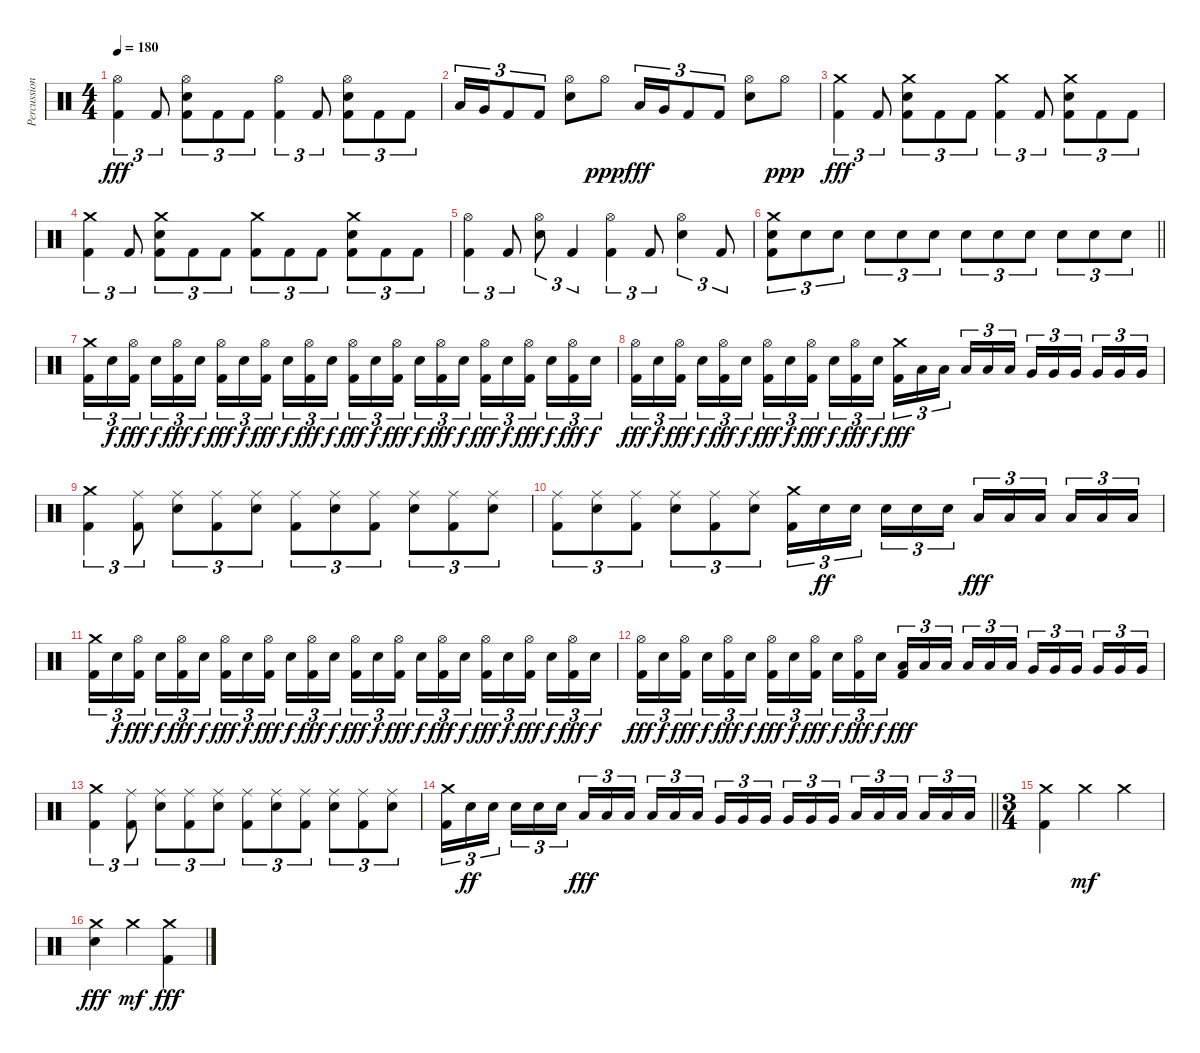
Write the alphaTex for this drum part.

\track ("Percussion" "Percussion") {instrument percussion}
\staff {score}
\articulation defaults
\ts (4 4)
\tempo 180
\clef neutral
\ks c
("Hi-Hat (open)" "Kick (hit) 2").4{tu (3 2) dy fff} "Kick (hit) 2".8{tu (3 2)} ("Hi-Hat (open)" "Electric Snare (hit)" "Kick (hit) 2").8{tu (3 2)} "Kick (hit) 2".8{tu (3 2)} "Kick (hit) 2".8{tu (3 2)} ("Hi-Hat (open)" "Kick (hit) 2").4{tu (3 2)} "Kick (hit) 2".8{tu (3 2)} ("Hi-Hat (open)" "Electric Snare (hit)" "Kick (hit) 2").8{tu (3 2)} "Kick (hit) 2".8{tu (3 2)} "Kick (hit) 2".8{tu (3 2)} |
"Low Tom (hit)".16{tu (3 2)} "Very Low Tom (hit)".16{tu (3 2)} "Kick (hit) 2".8{tu (3 2)} "Kick (hit) 2".8{tu (3 2)} ("Hi-Hat (open)" "Electric Snare (hit)").8 "Hi-Hat (open)".8{dy ppp} "Low Tom (hit)".16{tu (3 2) dy fff} "Very Low Tom (hit)".16{tu (3 2)} "Kick (hit) 2".8{tu (3 2)} "Kick (hit) 2".8{tu (3 2)} ("Hi-Hat (open)" "Electric Snare (hit)").8 "Hi-Hat (open)".8{dy ppp} |
("Crash medium (hit)" "Kick (hit) 2").4{tu (3 2) dy fff} "Kick (hit) 2".8{tu (3 2)} ("Crash medium (hit)" "Electric Snare (hit)" "Kick (hit) 2").8{tu (3 2)} "Kick (hit) 2".8{tu (3 2)} "Kick (hit) 2".8{tu (3 2)} ("Crash medium (hit)" "Kick (hit) 2").4{tu (3 2)} "Kick (hit) 2".8{tu (3 2)} ("Crash medium (hit)" "Electric Snare (hit)" "Kick (hit) 2").8{tu (3 2)} "Kick (hit) 2".8{tu (3 2)} "Kick (hit) 2".8{tu (3 2)} |
("Crash medium (hit)" "Kick (hit) 2").4{tu (3 2)} "Kick (hit) 2".8{tu (3 2)} ("Crash medium (hit)" "Electric Snare (hit)" "Kick (hit) 2").8{tu (3 2)} "Kick (hit) 2".8{tu (3 2)} "Kick (hit) 2".8{tu (3 2)} ("Crash medium (hit)" "Kick (hit) 2").8{tu (3 2)} "Kick (hit) 2".8{tu (3 2)} "Kick (hit) 2".8{tu (3 2)} ("Crash medium (hit)" "Electric Snare (hit)" "Kick (hit) 2").8{tu (3 2)} "Kick (hit) 2".8{tu (3 2)} "Kick (hit) 2".8{tu (3 2)} |
("Hi-Hat (open)" "Kick (hit) 2").4{tu (3 2)} "Kick (hit) 2".8{tu (3 2)} ("Hi-Hat (open)" "Electric Snare (hit)").8{tu (3 2)} "Kick (hit) 2".4{tu (3 2)} ("Hi-Hat (open)" "Kick (hit) 2").4{tu (3 2)} "Kick (hit) 2".8{tu (3 2)} ("Hi-Hat (open)" "Electric Snare (hit)").4{tu (3 2)} "Kick (hit) 2".8{tu (3 2)} |
\barLineRight lightlight
("Crash medium (hit)" "Electric Snare (hit)" "Kick (hit) 2").8{tu (3 2)} "Electric Snare (hit)".8{tu (3 2)} "Electric Snare (hit)".8{tu (3 2)} "Electric Snare (hit)".8{tu (3 2)} "Electric Snare (hit)".8{tu (3 2)} "Electric Snare (hit)".8{tu (3 2)} "Electric Snare (hit)".8{tu (3 2)} "Electric Snare (hit)".8{tu (3 2)} "Electric Snare (hit)".8{tu (3 2)} "Electric Snare (hit)".8{tu (3 2)} "Electric Snare (hit)".8{tu (3 2)} "Electric Snare (hit)".8{tu (3 2)} |
\section ("" "")
("Crash medium (hit)" "Kick (hit) 2").16{tu (3 2)} "Electric Snare (hit)".16{tu (3 2) dy f} ("Hi-Hat (open)" "Kick (hit) 2").16{tu (3 2) dy fff beam splitsecondary} "Electric Snare (hit)".16{tu (3 2) dy f} ("Hi-Hat (open)" "Kick (hit) 2").16{tu (3 2) dy fff} "Electric Snare (hit)".16{tu (3 2) dy f} ("Hi-Hat (open)" "Kick (hit) 2").16{tu (3 2) dy fff} "Electric Snare (hit)".16{tu (3 2) dy f} ("Hi-Hat (open)" "Kick (hit) 2").16{tu (3 2) dy fff beam splitsecondary} "Electric Snare (hit)".16{tu (3 2) dy f} ("Hi-Hat (open)" "Kick (hit) 2").16{tu (3 2) dy fff} "Electric Snare (hit)".16{tu (3 2) dy f} ("Hi-Hat (open)" "Kick (hit) 2").16{tu (3 2) dy fff} "Electric Snare (hit)".16{tu (3 2) dy f} ("Hi-Hat (open)" "Kick (hit) 2").16{tu (3 2) dy fff beam splitsecondary} "Electric Snare (hit)".16{tu (3 2) dy f} ("Hi-Hat (open)" "Kick (hit) 2").16{tu (3 2) dy fff} "Electric Snare (hit)".16{tu (3 2) dy f} ("Hi-Hat (open)" "Kick (hit) 2").16{tu (3 2) dy fff} "Electric Snare (hit)".16{tu (3 2) dy f} ("Hi-Hat (open)" "Kick (hit) 2").16{tu (3 2) dy fff beam splitsecondary} "Electric Snare (hit)".16{tu (3 2) dy f} ("Hi-Hat (open)" "Kick (hit) 2").16{tu (3 2) dy fff} "Electric Snare (hit)".16{tu (3 2) dy f} |
("Hi-Hat (open)" "Kick (hit) 2").16{tu (3 2) dy fff} "Electric Snare (hit)".16{tu (3 2) dy f} ("Hi-Hat (open)" "Kick (hit) 2").16{tu (3 2) dy fff beam splitsecondary} "Electric Snare (hit)".16{tu (3 2) dy f} ("Hi-Hat (open)" "Kick (hit) 2").16{tu (3 2) dy fff} "Electric Snare (hit)".16{tu (3 2) dy f} ("Hi-Hat (open)" "Kick (hit) 2").16{tu (3 2) dy fff} "Electric Snare (hit)".16{tu (3 2) dy f} ("Hi-Hat (open)" "Kick (hit) 2").16{tu (3 2) dy fff beam splitsecondary} "Electric Snare (hit)".16{tu (3 2) dy f} ("Hi-Hat (open)" "Kick (hit) 2").16{tu (3 2) dy fff} "Electric Snare (hit)".16{tu (3 2) dy f} ("Crash medium (hit)" "Kick (hit) 2").16{tu (3 2) dy fff} "Low Tom (hit)".16{tu (3 2)} "Low Tom (hit)".16{tu (3 2) beam splitsecondary} "Low Tom (hit)".16{tu (3 2)} "Low Tom (hit)".16{tu (3 2)} "Low Tom (hit)".16{tu (3 2)} "Very Low Tom (hit)".16{tu (3 2)} "Very Low Tom (hit)".16{tu (3 2)} "Very Low Tom (hit)".16{tu (3 2) beam splitsecondary} "Very Low Tom (hit)".16{tu (3 2)} "Very Low Tom (hit)".16{tu (3 2)} "Very Low Tom (hit)".16{tu (3 2)} |
("Crash medium (hit)" "Kick (hit) 2").4{tu (3 2)} ("Ride (middle)" "Kick (hit) 2").8{tu (3 2)} ("Ride (middle)" "Electric Snare (hit)").8{tu (3 2)} ("Ride (middle)" "Kick (hit) 2").8{tu (3 2)} ("Ride (middle)" "Electric Snare (hit)").8{tu (3 2)} ("Ride (middle)" "Kick (hit) 2").8{tu (3 2)} ("Ride (middle)" "Electric Snare (hit)").8{tu (3 2)} ("Ride (middle)" "Kick (hit) 2").8{tu (3 2)} ("Ride (middle)" "Electric Snare (hit)").8{tu (3 2)} ("Ride (middle)" "Kick (hit) 2").8{tu (3 2)} ("Ride (middle)" "Electric Snare (hit)").8{tu (3 2)} |
("Ride (middle)" "Kick (hit) 2").8{tu (3 2)} ("Ride (middle)" "Electric Snare (hit)").8{tu (3 2)} ("Ride (middle)" "Kick (hit) 2").8{tu (3 2)} ("Ride (middle)" "Electric Snare (hit)").8{tu (3 2)} ("Ride (middle)" "Kick (hit) 2").8{tu (3 2)} ("Ride (middle)" "Electric Snare (hit)").8{tu (3 2)} ("Crash medium (hit)" "Kick (hit) 2").16{tu (3 2)} "Electric Snare (hit)".16{tu (3 2) dy ff} "Electric Snare (hit)".16{tu (3 2) beam splitsecondary} "Electric Snare (hit)".16{tu (3 2)} "Electric Snare (hit)".16{tu (3 2)} "Electric Snare (hit)".16{tu (3 2)} "Low Tom (hit)".16{tu (3 2) dy fff} "Low Tom (hit)".16{tu (3 2)} "Low Tom (hit)".16{tu (3 2) beam splitsecondary} "Low Tom (hit)".16{tu (3 2)} "Low Tom (hit)".16{tu (3 2)} "Low Tom (hit)".16{tu (3 2)} |
("Crash medium (hit)" "Kick (hit) 2").16{tu (3 2)} "Electric Snare (hit)".16{tu (3 2) dy f} ("Hi-Hat (open)" "Kick (hit) 2").16{tu (3 2) dy fff beam splitsecondary} "Electric Snare (hit)".16{tu (3 2) dy f} ("Hi-Hat (open)" "Kick (hit) 2").16{tu (3 2) dy fff} "Electric Snare (hit)".16{tu (3 2) dy f} ("Hi-Hat (open)" "Kick (hit) 2").16{tu (3 2) dy fff} "Electric Snare (hit)".16{tu (3 2) dy f} ("Hi-Hat (open)" "Kick (hit) 2").16{tu (3 2) dy fff beam splitsecondary} "Electric Snare (hit)".16{tu (3 2) dy f} ("Hi-Hat (open)" "Kick (hit) 2").16{tu (3 2) dy fff} "Electric Snare (hit)".16{tu (3 2) dy f} ("Hi-Hat (open)" "Kick (hit) 2").16{tu (3 2) dy fff} "Electric Snare (hit)".16{tu (3 2) dy f} ("Hi-Hat (open)" "Kick (hit) 2").16{tu (3 2) dy fff beam splitsecondary} "Electric Snare (hit)".16{tu (3 2) dy f} ("Hi-Hat (open)" "Kick (hit) 2").16{tu (3 2) dy fff} "Electric Snare (hit)".16{tu (3 2) dy f} ("Hi-Hat (open)" "Kick (hit) 2").16{tu (3 2) dy fff} "Electric Snare (hit)".16{tu (3 2) dy f} ("Hi-Hat (open)" "Kick (hit) 2").16{tu (3 2) dy fff beam splitsecondary} "Electric Snare (hit)".16{tu (3 2) dy f} ("Hi-Hat (open)" "Kick (hit) 2").16{tu (3 2) dy fff} "Electric Snare (hit)".16{tu (3 2) dy f} |
("Hi-Hat (open)" "Kick (hit) 2").16{tu (3 2) dy fff} "Electric Snare (hit)".16{tu (3 2) dy f} ("Hi-Hat (open)" "Kick (hit) 2").16{tu (3 2) dy fff beam splitsecondary} "Electric Snare (hit)".16{tu (3 2) dy f} ("Hi-Hat (open)" "Kick (hit) 2").16{tu (3 2) dy fff} "Electric Snare (hit)".16{tu (3 2) dy f} ("Hi-Hat (open)" "Kick (hit) 2").16{tu (3 2) dy fff} "Electric Snare (hit)".16{tu (3 2) dy f} ("Hi-Hat (open)" "Kick (hit) 2").16{tu (3 2) dy fff beam splitsecondary} "Electric Snare (hit)".16{tu (3 2) dy f} ("Hi-Hat (open)" "Kick (hit) 2").16{tu (3 2) dy fff} "Electric Snare (hit)".16{tu (3 2) dy f} ("Low Tom (hit)" "Kick (hit) 2").16{tu (3 2) dy fff} "Low Tom (hit)".16{tu (3 2)} "Low Tom (hit)".16{tu (3 2) beam splitsecondary} "Low Tom (hit)".16{tu (3 2)} "Low Tom (hit)".16{tu (3 2)} "Low Tom (hit)".16{tu (3 2)} "Very Low Tom (hit)".16{tu (3 2)} "Very Low Tom (hit)".16{tu (3 2)} "Very Low Tom (hit)".16{tu (3 2) beam splitsecondary} "Very Low Tom (hit)".16{tu (3 2)} "Very Low Tom (hit)".16{tu (3 2)} "Very Low Tom (hit)".16{tu (3 2)} |
("Crash medium (hit)" "Kick (hit) 2").4{tu (3 2)} ("Ride (middle)" "Kick (hit) 2").8{tu (3 2)} ("Ride (middle)" "Electric Snare (hit)").8{tu (3 2)} ("Ride (middle)" "Kick (hit) 2").8{tu (3 2)} ("Ride (middle)" "Electric Snare (hit)").8{tu (3 2)} ("Ride (middle)" "Kick (hit) 2").8{tu (3 2)} ("Ride (middle)" "Electric Snare (hit)").8{tu (3 2)} ("Ride (middle)" "Kick (hit) 2").8{tu (3 2)} ("Ride (middle)" "Electric Snare (hit)").8{tu (3 2)} ("Ride (middle)" "Kick (hit) 2").8{tu (3 2)} ("Ride (middle)" "Electric Snare (hit)").8{tu (3 2)} |
\barLineRight lightlight
("Crash medium (hit)" "Kick (hit) 2").16{tu (3 2)} "Electric Snare (hit)".16{tu (3 2) dy ff} "Electric Snare (hit)".16{tu (3 2) beam splitsecondary} "Electric Snare (hit)".16{tu (3 2)} "Electric Snare (hit)".16{tu (3 2)} "Electric Snare (hit)".16{tu (3 2)} "Low Tom (hit)".16{tu (3 2) dy fff} "Low Tom (hit)".16{tu (3 2)} "Low Tom (hit)".16{tu (3 2) beam splitsecondary} "Low Tom (hit)".16{tu (3 2)} "Low Tom (hit)".16{tu (3 2)} "Low Tom (hit)".16{tu (3 2)} "Very Low Tom (hit)".16{tu (3 2)} "Very Low Tom (hit)".16{tu (3 2)} "Very Low Tom (hit)".16{tu (3 2) beam splitsecondary} "Very Low Tom (hit)".16{tu (3 2)} "Very Low Tom (hit)".16{tu (3 2)} "Very Low Tom (hit)".16{tu (3 2)} "Low Floor Tom (hit)".16{tu (3 2)} "Low Floor Tom (hit)".16{tu (3 2)} "Low Floor Tom (hit)".16{tu (3 2) beam splitsecondary} "Low Floor Tom (hit)".16{tu (3 2)} "Low Floor Tom (hit)".16{tu (3 2)} "Low Floor Tom (hit)".16{tu (3 2)} |
\ts (3 4)
\section ("" "")
("Crash medium (hit)" "Kick (hit) 2").4 "Crash medium (hit)".4{dy mf} "Crash medium (hit)".4 |
("Crash medium (hit)" "Electric Snare (hit)").4{dy fff} "Crash medium (hit)".4{dy mf} ("Crash medium (hit)" "Kick (hit) 2").4{dy fff}
